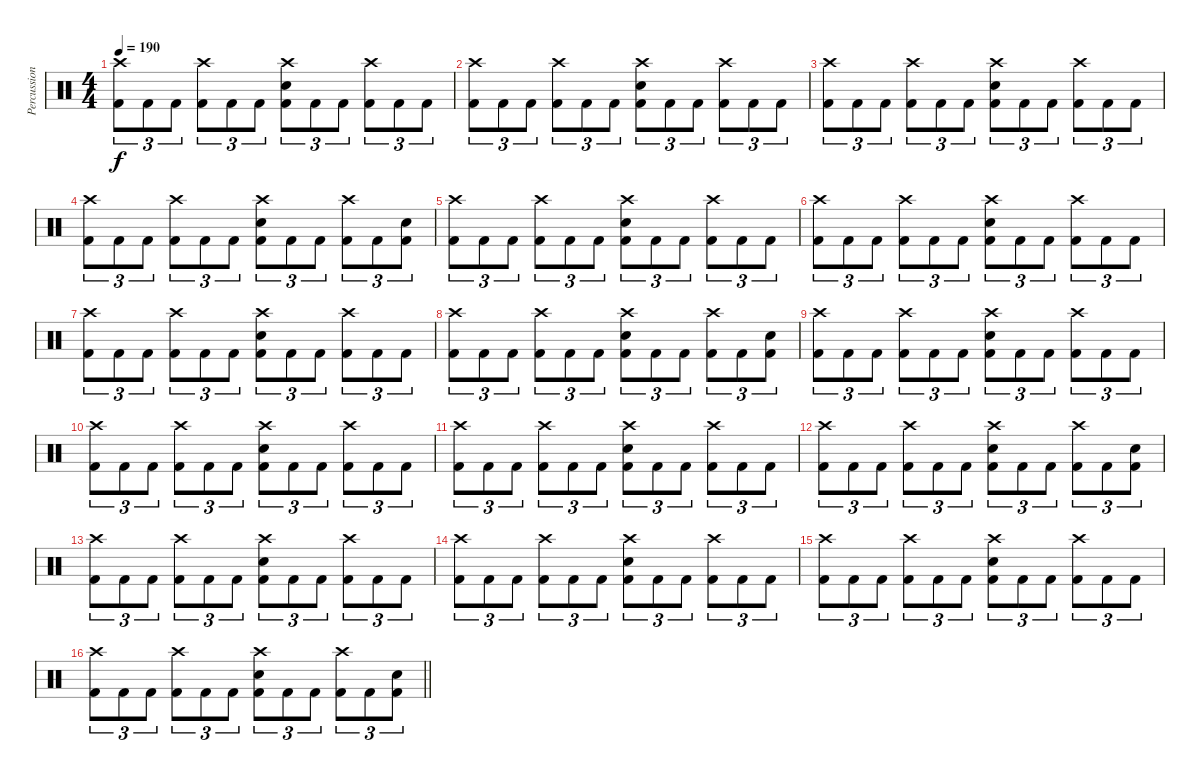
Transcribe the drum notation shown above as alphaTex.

\track ("Percussion" "Percussion") {instrument percussion}
\staff {score}
\articulation defaults
\ts (4 4)
\tempo 190
\clef neutral
\ks c
("Crash high (hit)" "Kick (hit) 2").8{tu (3 2) dy f} "Kick (hit) 2".8{tu (3 2)} "Kick (hit) 2".8{tu (3 2)} ("Crash high (hit)" "Kick (hit) 2").8{tu (3 2)} "Kick (hit) 2".8{tu (3 2)} "Kick (hit) 2".8{tu (3 2)} ("Crash high (hit)" "Snare (hit) 2" "Kick (hit) 2").8{tu (3 2)} "Kick (hit) 2".8{tu (3 2)} "Kick (hit) 2".8{tu (3 2)} ("Crash high (hit)" "Kick (hit) 2").8{tu (3 2)} "Kick (hit) 2".8{tu (3 2)} "Kick (hit) 2".8{tu (3 2)} |
("Crash high (hit)" "Kick (hit) 2").8{tu (3 2)} "Kick (hit) 2".8{tu (3 2)} "Kick (hit) 2".8{tu (3 2)} ("Crash high (hit)" "Kick (hit) 2").8{tu (3 2)} "Kick (hit) 2".8{tu (3 2)} "Kick (hit) 2".8{tu (3 2)} ("Crash high (hit)" "Snare (hit) 2" "Kick (hit) 2").8{tu (3 2)} "Kick (hit) 2".8{tu (3 2)} "Kick (hit) 2".8{tu (3 2)} ("Crash high (hit)" "Kick (hit) 2").8{tu (3 2)} "Kick (hit) 2".8{tu (3 2)} "Kick (hit) 2".8{tu (3 2)} |
("Crash high (hit)" "Kick (hit) 2").8{tu (3 2)} "Kick (hit) 2".8{tu (3 2)} "Kick (hit) 2".8{tu (3 2)} ("Crash high (hit)" "Kick (hit) 2").8{tu (3 2)} "Kick (hit) 2".8{tu (3 2)} "Kick (hit) 2".8{tu (3 2)} ("Crash high (hit)" "Snare (hit) 2" "Kick (hit) 2").8{tu (3 2)} "Kick (hit) 2".8{tu (3 2)} "Kick (hit) 2".8{tu (3 2)} ("Crash high (hit)" "Kick (hit) 2").8{tu (3 2)} "Kick (hit) 2".8{tu (3 2)} "Kick (hit) 2".8{tu (3 2)} |
("Crash high (hit)" "Kick (hit) 2").8{tu (3 2)} "Kick (hit) 2".8{tu (3 2)} "Kick (hit) 2".8{tu (3 2)} ("Crash high (hit)" "Kick (hit) 2").8{tu (3 2)} "Kick (hit) 2".8{tu (3 2)} "Kick (hit) 2".8{tu (3 2)} ("Crash high (hit)" "Snare (hit) 2" "Kick (hit) 2").8{tu (3 2)} "Kick (hit) 2".8{tu (3 2)} "Kick (hit) 2".8{tu (3 2)} ("Crash high (hit)" "Kick (hit) 2").8{tu (3 2)} "Kick (hit) 2".8{tu (3 2)} ("Snare (hit) 2" "Kick (hit) 2").8{tu (3 2)} |
("Crash high (hit)" "Kick (hit) 2").8{tu (3 2)} "Kick (hit) 2".8{tu (3 2)} "Kick (hit) 2".8{tu (3 2)} ("Crash high (hit)" "Kick (hit) 2").8{tu (3 2)} "Kick (hit) 2".8{tu (3 2)} "Kick (hit) 2".8{tu (3 2)} ("Crash high (hit)" "Snare (hit) 2" "Kick (hit) 2").8{tu (3 2)} "Kick (hit) 2".8{tu (3 2)} "Kick (hit) 2".8{tu (3 2)} ("Crash high (hit)" "Kick (hit) 2").8{tu (3 2)} "Kick (hit) 2".8{tu (3 2)} "Kick (hit) 2".8{tu (3 2)} |
("Crash high (hit)" "Kick (hit) 2").8{tu (3 2)} "Kick (hit) 2".8{tu (3 2)} "Kick (hit) 2".8{tu (3 2)} ("Crash high (hit)" "Kick (hit) 2").8{tu (3 2)} "Kick (hit) 2".8{tu (3 2)} "Kick (hit) 2".8{tu (3 2)} ("Crash high (hit)" "Snare (hit) 2" "Kick (hit) 2").8{tu (3 2)} "Kick (hit) 2".8{tu (3 2)} "Kick (hit) 2".8{tu (3 2)} ("Crash high (hit)" "Kick (hit) 2").8{tu (3 2)} "Kick (hit) 2".8{tu (3 2)} "Kick (hit) 2".8{tu (3 2)} |
("Crash high (hit)" "Kick (hit) 2").8{tu (3 2)} "Kick (hit) 2".8{tu (3 2)} "Kick (hit) 2".8{tu (3 2)} ("Crash high (hit)" "Kick (hit) 2").8{tu (3 2)} "Kick (hit) 2".8{tu (3 2)} "Kick (hit) 2".8{tu (3 2)} ("Crash high (hit)" "Snare (hit) 2" "Kick (hit) 2").8{tu (3 2)} "Kick (hit) 2".8{tu (3 2)} "Kick (hit) 2".8{tu (3 2)} ("Crash high (hit)" "Kick (hit) 2").8{tu (3 2)} "Kick (hit) 2".8{tu (3 2)} "Kick (hit) 2".8{tu (3 2)} |
("Crash high (hit)" "Kick (hit) 2").8{tu (3 2)} "Kick (hit) 2".8{tu (3 2)} "Kick (hit) 2".8{tu (3 2)} ("Crash high (hit)" "Kick (hit) 2").8{tu (3 2)} "Kick (hit) 2".8{tu (3 2)} "Kick (hit) 2".8{tu (3 2)} ("Crash high (hit)" "Snare (hit) 2" "Kick (hit) 2").8{tu (3 2)} "Kick (hit) 2".8{tu (3 2)} "Kick (hit) 2".8{tu (3 2)} ("Crash high (hit)" "Kick (hit) 2").8{tu (3 2)} "Kick (hit) 2".8{tu (3 2)} ("Snare (hit) 2" "Kick (hit) 2").8{tu (3 2)} |
("Crash high (hit)" "Kick (hit) 2").8{tu (3 2)} "Kick (hit) 2".8{tu (3 2)} "Kick (hit) 2".8{tu (3 2)} ("Crash high (hit)" "Kick (hit) 2").8{tu (3 2)} "Kick (hit) 2".8{tu (3 2)} "Kick (hit) 2".8{tu (3 2)} ("Crash high (hit)" "Snare (hit) 2" "Kick (hit) 2").8{tu (3 2)} "Kick (hit) 2".8{tu (3 2)} "Kick (hit) 2".8{tu (3 2)} ("Crash high (hit)" "Kick (hit) 2").8{tu (3 2)} "Kick (hit) 2".8{tu (3 2)} "Kick (hit) 2".8{tu (3 2)} |
("Crash high (hit)" "Kick (hit) 2").8{tu (3 2)} "Kick (hit) 2".8{tu (3 2)} "Kick (hit) 2".8{tu (3 2)} ("Crash high (hit)" "Kick (hit) 2").8{tu (3 2)} "Kick (hit) 2".8{tu (3 2)} "Kick (hit) 2".8{tu (3 2)} ("Crash high (hit)" "Snare (hit) 2" "Kick (hit) 2").8{tu (3 2)} "Kick (hit) 2".8{tu (3 2)} "Kick (hit) 2".8{tu (3 2)} ("Crash high (hit)" "Kick (hit) 2").8{tu (3 2)} "Kick (hit) 2".8{tu (3 2)} "Kick (hit) 2".8{tu (3 2)} |
("Crash high (hit)" "Kick (hit) 2").8{tu (3 2)} "Kick (hit) 2".8{tu (3 2)} "Kick (hit) 2".8{tu (3 2)} ("Crash high (hit)" "Kick (hit) 2").8{tu (3 2)} "Kick (hit) 2".8{tu (3 2)} "Kick (hit) 2".8{tu (3 2)} ("Crash high (hit)" "Snare (hit) 2" "Kick (hit) 2").8{tu (3 2)} "Kick (hit) 2".8{tu (3 2)} "Kick (hit) 2".8{tu (3 2)} ("Crash high (hit)" "Kick (hit) 2").8{tu (3 2)} "Kick (hit) 2".8{tu (3 2)} "Kick (hit) 2".8{tu (3 2)} |
("Crash high (hit)" "Kick (hit) 2").8{tu (3 2)} "Kick (hit) 2".8{tu (3 2)} "Kick (hit) 2".8{tu (3 2)} ("Crash high (hit)" "Kick (hit) 2").8{tu (3 2)} "Kick (hit) 2".8{tu (3 2)} "Kick (hit) 2".8{tu (3 2)} ("Crash high (hit)" "Snare (hit) 2" "Kick (hit) 2").8{tu (3 2)} "Kick (hit) 2".8{tu (3 2)} "Kick (hit) 2".8{tu (3 2)} ("Crash high (hit)" "Kick (hit) 2").8{tu (3 2)} "Kick (hit) 2".8{tu (3 2)} ("Snare (hit) 2" "Kick (hit) 2").8{tu (3 2)} |
("Crash high (hit)" "Kick (hit) 2").8{tu (3 2)} "Kick (hit) 2".8{tu (3 2)} "Kick (hit) 2".8{tu (3 2)} ("Crash high (hit)" "Kick (hit) 2").8{tu (3 2)} "Kick (hit) 2".8{tu (3 2)} "Kick (hit) 2".8{tu (3 2)} ("Crash high (hit)" "Snare (hit) 2" "Kick (hit) 2").8{tu (3 2)} "Kick (hit) 2".8{tu (3 2)} "Kick (hit) 2".8{tu (3 2)} ("Crash high (hit)" "Kick (hit) 2").8{tu (3 2)} "Kick (hit) 2".8{tu (3 2)} "Kick (hit) 2".8{tu (3 2)} |
("Crash high (hit)" "Kick (hit) 2").8{tu (3 2)} "Kick (hit) 2".8{tu (3 2)} "Kick (hit) 2".8{tu (3 2)} ("Crash high (hit)" "Kick (hit) 2").8{tu (3 2)} "Kick (hit) 2".8{tu (3 2)} "Kick (hit) 2".8{tu (3 2)} ("Crash high (hit)" "Snare (hit) 2" "Kick (hit) 2").8{tu (3 2)} "Kick (hit) 2".8{tu (3 2)} "Kick (hit) 2".8{tu (3 2)} ("Crash high (hit)" "Kick (hit) 2").8{tu (3 2)} "Kick (hit) 2".8{tu (3 2)} "Kick (hit) 2".8{tu (3 2)} |
("Crash high (hit)" "Kick (hit) 2").8{tu (3 2)} "Kick (hit) 2".8{tu (3 2)} "Kick (hit) 2".8{tu (3 2)} ("Crash high (hit)" "Kick (hit) 2").8{tu (3 2)} "Kick (hit) 2".8{tu (3 2)} "Kick (hit) 2".8{tu (3 2)} ("Crash high (hit)" "Snare (hit) 2" "Kick (hit) 2").8{tu (3 2)} "Kick (hit) 2".8{tu (3 2)} "Kick (hit) 2".8{tu (3 2)} ("Crash high (hit)" "Kick (hit) 2").8{tu (3 2)} "Kick (hit) 2".8{tu (3 2)} "Kick (hit) 2".8{tu (3 2)} |
\barLineRight lightlight
("Crash high (hit)" "Kick (hit) 2").8{tu (3 2)} "Kick (hit) 2".8{tu (3 2)} "Kick (hit) 2".8{tu (3 2)} ("Crash high (hit)" "Kick (hit) 2").8{tu (3 2)} "Kick (hit) 2".8{tu (3 2)} "Kick (hit) 2".8{tu (3 2)} ("Crash high (hit)" "Snare (hit) 2" "Kick (hit) 2").8{tu (3 2)} "Kick (hit) 2".8{tu (3 2)} "Kick (hit) 2".8{tu (3 2)} ("Crash high (hit)" "Kick (hit) 2").8{tu (3 2)} "Kick (hit) 2".8{tu (3 2)} ("Snare (hit) 2" "Kick (hit) 2").8{tu (3 2)}
